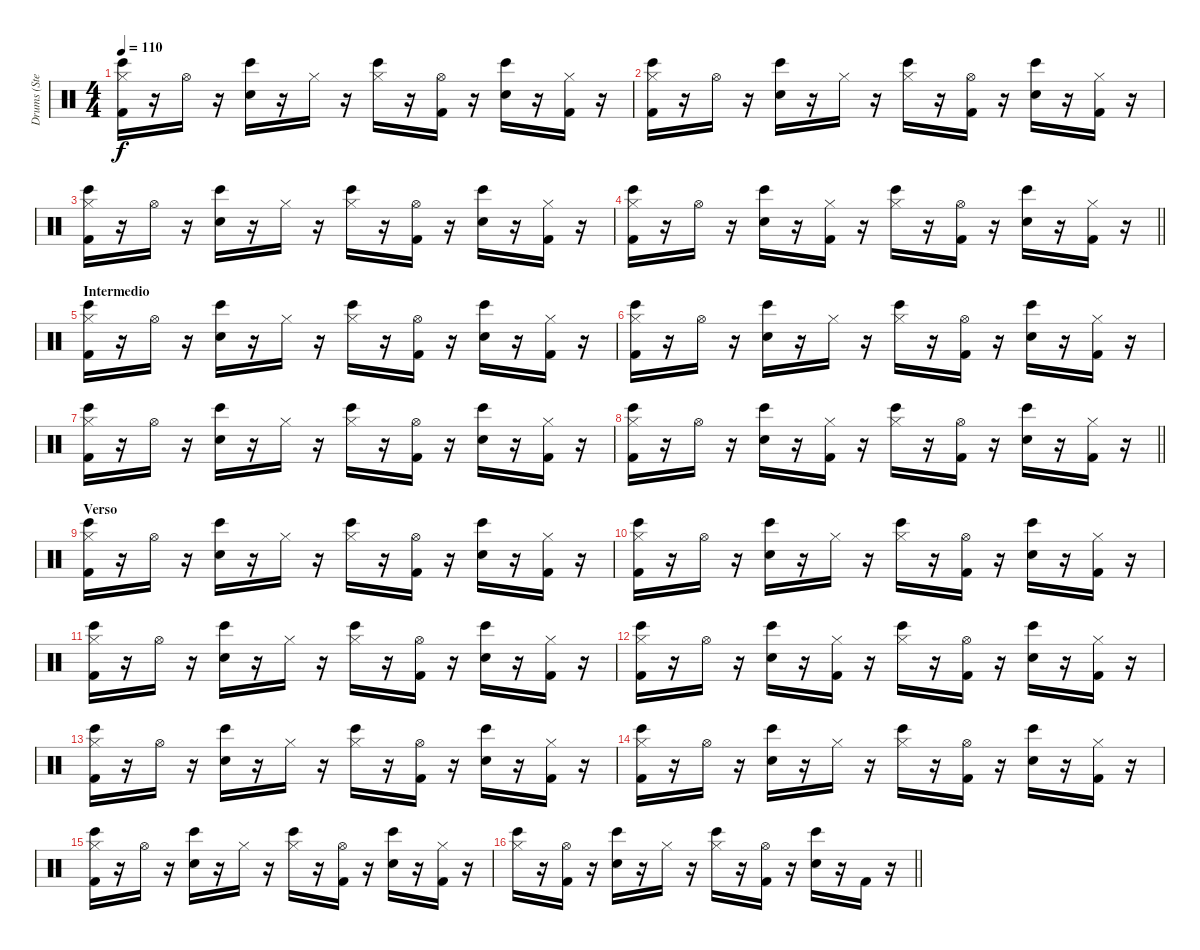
\track ("Drums (Stephen Perkins)" "Drums (Ste") {instrument percussion}
\staff {score}
\articulation defaults
\ts (4 4)
\tempo 110
\clef neutral
\ks c
("Hi-Hat (closed)" "Bongo High (hit)" "Kick (hit) 2").16{dy f} r.16 "Hi-Hat (open)".16 r.16 ("Bongo High (hit)" "Snare (hit) 2").16 r.16 "Hi-Hat (closed)".16 r.16 ("Hi-Hat (closed)" "Bongo High (hit)").16 r.16 ("Hi-Hat (open)" "Kick (hit) 2").16 r.16 ("Bongo High (hit)" "Snare (hit) 2").16 r.16 ("Hi-Hat (closed)" "Kick (hit) 2").16 r.16 |
("Hi-Hat (closed)" "Bongo High (hit)" "Kick (hit) 2").16 r.16 "Hi-Hat (open)".16 r.16 ("Bongo High (hit)" "Snare (hit) 2").16 r.16 "Hi-Hat (closed)".16 r.16 ("Hi-Hat (closed)" "Bongo High (hit)").16 r.16 ("Hi-Hat (open)" "Kick (hit) 2").16 r.16 ("Bongo High (hit)" "Snare (hit) 2").16 r.16 ("Hi-Hat (closed)" "Kick (hit) 2").16 r.16 |
("Hi-Hat (closed)" "Bongo High (hit)" "Kick (hit) 2").16 r.16 "Hi-Hat (open)".16 r.16 ("Bongo High (hit)" "Snare (hit) 2").16 r.16 "Hi-Hat (closed)".16 r.16 ("Hi-Hat (closed)" "Bongo High (hit)").16 r.16 ("Hi-Hat (open)" "Kick (hit) 2").16 r.16 ("Bongo High (hit)" "Snare (hit) 2").16 r.16 ("Hi-Hat (closed)" "Kick (hit) 2").16 r.16 |
\barLineRight lightlight
("Hi-Hat (closed)" "Bongo High (hit)" "Kick (hit) 2").16 r.16 "Hi-Hat (open)".16 r.16 ("Bongo High (hit)" "Snare (hit) 2").16 r.16 ("Hi-Hat (closed)" "Kick (hit) 2").16 r.16 ("Hi-Hat (closed)" "Bongo High (hit)").16 r.16 ("Hi-Hat (open)" "Kick (hit) 2").16 r.16 ("Bongo High (hit)" "Snare (hit) 2").16 r.16 ("Hi-Hat (closed)" "Kick (hit) 2").16 r.16 |
\section ("" "Intermedio")
("Hi-Hat (closed)" "Bongo High (hit)" "Kick (hit) 2").16 r.16 "Hi-Hat (open)".16 r.16 ("Bongo High (hit)" "Snare (hit) 2").16 r.16 "Hi-Hat (closed)".16 r.16 ("Hi-Hat (closed)" "Bongo High (hit)").16 r.16 ("Hi-Hat (open)" "Kick (hit) 2").16 r.16 ("Bongo High (hit)" "Snare (hit) 2").16 r.16 ("Hi-Hat (closed)" "Kick (hit) 2").16 r.16 |
("Hi-Hat (closed)" "Bongo High (hit)" "Kick (hit) 2").16 r.16 "Hi-Hat (open)".16 r.16 ("Bongo High (hit)" "Snare (hit) 2").16 r.16 "Hi-Hat (closed)".16 r.16 ("Hi-Hat (closed)" "Bongo High (hit)").16 r.16 ("Hi-Hat (open)" "Kick (hit) 2").16 r.16 ("Bongo High (hit)" "Snare (hit) 2").16 r.16 ("Hi-Hat (closed)" "Kick (hit) 2").16 r.16 |
("Hi-Hat (closed)" "Bongo High (hit)" "Kick (hit) 2").16 r.16 "Hi-Hat (open)".16 r.16 ("Bongo High (hit)" "Snare (hit) 2").16 r.16 "Hi-Hat (closed)".16 r.16 ("Hi-Hat (closed)" "Bongo High (hit)").16 r.16 ("Hi-Hat (open)" "Kick (hit) 2").16 r.16 ("Bongo High (hit)" "Snare (hit) 2").16 r.16 ("Hi-Hat (closed)" "Kick (hit) 2").16 r.16 |
\barLineRight lightlight
("Hi-Hat (closed)" "Bongo High (hit)" "Kick (hit) 2").16 r.16 "Hi-Hat (open)".16 r.16 ("Bongo High (hit)" "Snare (hit) 2").16 r.16 ("Hi-Hat (closed)" "Kick (hit) 2").16 r.16 ("Hi-Hat (closed)" "Bongo High (hit)").16 r.16 ("Hi-Hat (open)" "Kick (hit) 2").16 r.16 ("Bongo High (hit)" "Snare (hit) 2").16 r.16 ("Hi-Hat (closed)" "Kick (hit) 2").16 r.16 |
\section ("" "Verso")
("Hi-Hat (closed)" "Bongo High (hit)" "Kick (hit) 2").16 r.16 "Hi-Hat (open)".16 r.16 ("Bongo High (hit)" "Snare (hit) 2").16 r.16 "Hi-Hat (closed)".16 r.16 ("Hi-Hat (closed)" "Bongo High (hit)").16 r.16 ("Hi-Hat (open)" "Kick (hit) 2").16 r.16 ("Bongo High (hit)" "Snare (hit) 2").16 r.16 ("Hi-Hat (closed)" "Kick (hit) 2").16 r.16 |
("Hi-Hat (closed)" "Bongo High (hit)" "Kick (hit) 2").16 r.16 "Hi-Hat (open)".16 r.16 ("Bongo High (hit)" "Snare (hit) 2").16 r.16 "Hi-Hat (closed)".16 r.16 ("Hi-Hat (closed)" "Bongo High (hit)").16 r.16 ("Hi-Hat (open)" "Kick (hit) 2").16 r.16 ("Bongo High (hit)" "Snare (hit) 2").16 r.16 ("Hi-Hat (closed)" "Kick (hit) 2").16 r.16 |
("Hi-Hat (closed)" "Bongo High (hit)" "Kick (hit) 2").16 r.16 "Hi-Hat (open)".16 r.16 ("Bongo High (hit)" "Snare (hit) 2").16 r.16 "Hi-Hat (closed)".16 r.16 ("Hi-Hat (closed)" "Bongo High (hit)").16 r.16 ("Hi-Hat (open)" "Kick (hit) 2").16 r.16 ("Bongo High (hit)" "Snare (hit) 2").16 r.16 ("Hi-Hat (closed)" "Kick (hit) 2").16 r.16 |
("Hi-Hat (closed)" "Bongo High (hit)" "Kick (hit) 2").16 r.16 "Hi-Hat (open)".16 r.16 ("Bongo High (hit)" "Snare (hit) 2").16 r.16 ("Hi-Hat (closed)" "Kick (hit) 2").16 r.16 ("Hi-Hat (closed)" "Bongo High (hit)").16 r.16 ("Hi-Hat (open)" "Kick (hit) 2").16 r.16 ("Bongo High (hit)" "Snare (hit) 2").16 r.16 ("Hi-Hat (closed)" "Kick (hit) 2").16 r.16 |
("Hi-Hat (closed)" "Bongo High (hit)" "Kick (hit) 2").16 r.16 "Hi-Hat (open)".16 r.16 ("Bongo High (hit)" "Snare (hit) 2").16 r.16 "Hi-Hat (closed)".16 r.16 ("Hi-Hat (closed)" "Bongo High (hit)").16 r.16 ("Hi-Hat (open)" "Kick (hit) 2").16 r.16 ("Bongo High (hit)" "Snare (hit) 2").16 r.16 ("Hi-Hat (closed)" "Kick (hit) 2").16 r.16 |
("Hi-Hat (closed)" "Bongo High (hit)" "Kick (hit) 2").16 r.16 "Hi-Hat (open)".16 r.16 ("Bongo High (hit)" "Snare (hit) 2").16 r.16 "Hi-Hat (closed)".16 r.16 ("Hi-Hat (closed)" "Bongo High (hit)").16 r.16 ("Hi-Hat (open)" "Kick (hit) 2").16 r.16 ("Bongo High (hit)" "Snare (hit) 2").16 r.16 ("Hi-Hat (closed)" "Kick (hit) 2").16 r.16 |
("Hi-Hat (closed)" "Bongo High (hit)" "Kick (hit) 2").16 r.16 "Hi-Hat (open)".16 r.16 ("Bongo High (hit)" "Snare (hit) 2").16 r.16 "Hi-Hat (closed)".16 r.16 ("Hi-Hat (closed)" "Bongo High (hit)").16 r.16 ("Hi-Hat (open)" "Kick (hit) 2").16 r.16 ("Bongo High (hit)" "Snare (hit) 2").16 r.16 ("Hi-Hat (closed)" "Kick (hit) 2").16 r.16 |
\barLineRight lightlight
("Hi-Hat (closed)" "Bongo High (hit)").16 r.16 ("Hi-Hat (open)" "Kick (hit) 2").16 r.16 ("Bongo High (hit)" "Snare (hit) 2").16 r.16 "Hi-Hat (closed)".16 r.16 ("Hi-Hat (closed)" "Bongo High (hit)").16 r.16 ("Hi-Hat (open)" "Kick (hit) 2").16 r.16 ("Bongo High (hit)" "Snare (hit) 2").16 r.16 "Kick (hit) 2".16 r.16
